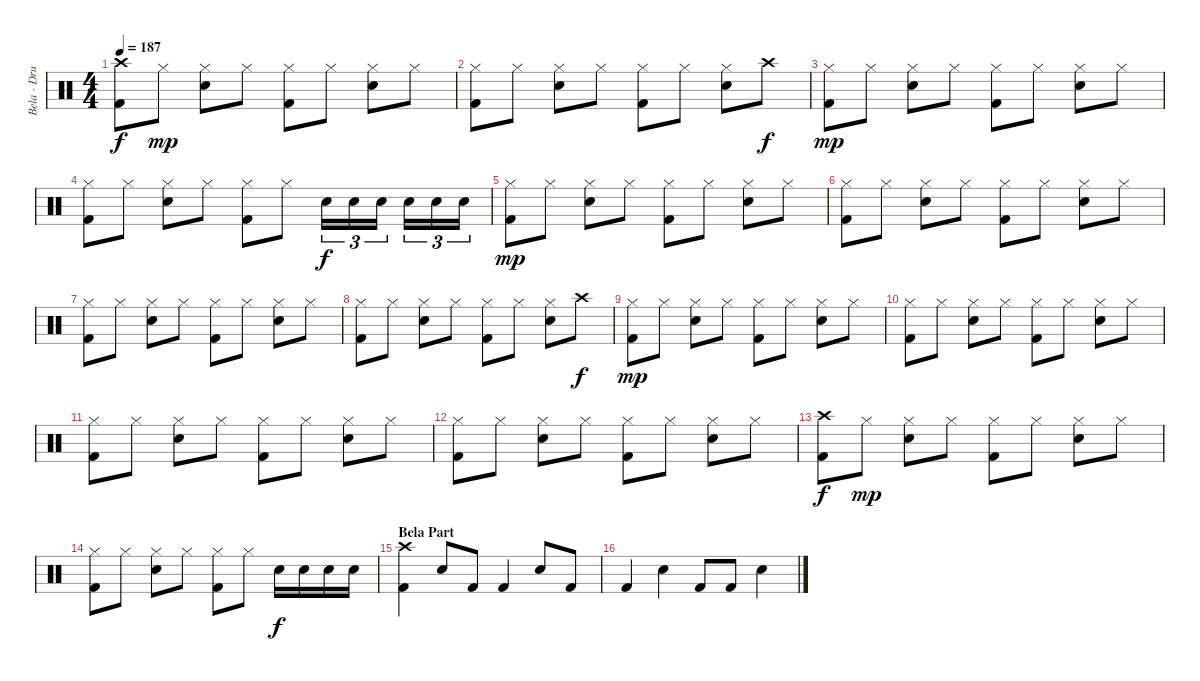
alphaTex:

\track ("Bela - Drums" "Bela - Dru") {instrument percussion}
\staff {score}
\articulation defaults
\ts (4 4)
\tempo 187
\clef neutral
\ks c
("Crash high (hit)" "Kick (hit) 2").8{dy f} "Hi-Hat (closed)".8{dy mp} ("Hi-Hat (closed)" "Snare (hit) 2").8 "Hi-Hat (closed)".8 ("Hi-Hat (closed)" "Kick (hit) 2").8 "Hi-Hat (closed)".8 ("Hi-Hat (closed)" "Snare (hit) 2").8 "Hi-Hat (closed)".8 |
("Hi-Hat (closed)" "Kick (hit) 2").8 "Hi-Hat (closed)".8 ("Hi-Hat (closed)" "Snare (hit) 2").8 "Hi-Hat (closed)".8 ("Hi-Hat (closed)" "Kick (hit) 2").8 "Hi-Hat (closed)".8 ("Hi-Hat (closed)" "Snare (hit) 2").8 "Crash high (hit)".8{dy f} |
("Hi-Hat (closed)" "Kick (hit) 2").8{dy mp} "Hi-Hat (closed)".8 ("Hi-Hat (closed)" "Snare (hit) 2").8 "Hi-Hat (closed)".8 ("Hi-Hat (closed)" "Kick (hit) 2").8 "Hi-Hat (closed)".8 ("Hi-Hat (closed)" "Snare (hit) 2").8 "Hi-Hat (closed)".8 |
("Hi-Hat (closed)" "Kick (hit) 2").8 "Hi-Hat (closed)".8 ("Hi-Hat (closed)" "Snare (hit) 2").8 "Hi-Hat (closed)".8 ("Hi-Hat (closed)" "Kick (hit) 2").8 "Hi-Hat (closed)".8 "Snare (hit) 2".16{tu (3 2) dy f} "Snare (hit) 2".16{tu (3 2)} "Snare (hit) 2".16{tu (3 2)} "Snare (hit) 2".16{tu (3 2)} "Snare (hit) 2".16{tu (3 2)} "Snare (hit) 2".16{tu (3 2)} |
("Hi-Hat (closed)" "Kick (hit) 2").8{dy mp} "Hi-Hat (closed)".8 ("Hi-Hat (closed)" "Snare (hit) 2").8 "Hi-Hat (closed)".8 ("Hi-Hat (closed)" "Kick (hit) 2").8 "Hi-Hat (closed)".8 ("Hi-Hat (closed)" "Snare (hit) 2").8 "Hi-Hat (closed)".8 |
("Hi-Hat (closed)" "Kick (hit) 2").8 "Hi-Hat (closed)".8 ("Hi-Hat (closed)" "Snare (hit) 2").8 "Hi-Hat (closed)".8 ("Hi-Hat (closed)" "Kick (hit) 2").8 "Hi-Hat (closed)".8 ("Hi-Hat (closed)" "Snare (hit) 2").8 "Hi-Hat (closed)".8 |
("Hi-Hat (closed)" "Kick (hit) 2").8 "Hi-Hat (closed)".8 ("Hi-Hat (closed)" "Snare (hit) 2").8 "Hi-Hat (closed)".8 ("Hi-Hat (closed)" "Kick (hit) 2").8 "Hi-Hat (closed)".8 ("Hi-Hat (closed)" "Snare (hit) 2").8 "Hi-Hat (closed)".8 |
("Hi-Hat (closed)" "Kick (hit) 2").8 "Hi-Hat (closed)".8 ("Hi-Hat (closed)" "Snare (hit) 2").8 "Hi-Hat (closed)".8 ("Hi-Hat (closed)" "Kick (hit) 2").8 "Hi-Hat (closed)".8 ("Hi-Hat (closed)" "Snare (hit) 2").8 "Crash high (hit)".8{dy f} |
("Hi-Hat (closed)" "Kick (hit) 2").8{dy mp} "Hi-Hat (closed)".8 ("Hi-Hat (closed)" "Snare (hit) 2").8 "Hi-Hat (closed)".8 ("Hi-Hat (closed)" "Kick (hit) 2").8 "Hi-Hat (closed)".8 ("Hi-Hat (closed)" "Snare (hit) 2").8 "Hi-Hat (closed)".8 |
("Hi-Hat (closed)" "Kick (hit) 2").8 "Hi-Hat (closed)".8 ("Hi-Hat (closed)" "Snare (hit) 2").8 "Hi-Hat (closed)".8 ("Hi-Hat (closed)" "Kick (hit) 2").8 "Hi-Hat (closed)".8 ("Hi-Hat (closed)" "Snare (hit) 2").8 "Hi-Hat (closed)".8 |
("Hi-Hat (closed)" "Kick (hit) 2").8 "Hi-Hat (closed)".8 ("Hi-Hat (closed)" "Snare (hit) 2").8 "Hi-Hat (closed)".8 ("Hi-Hat (closed)" "Kick (hit) 2").8 "Hi-Hat (closed)".8 ("Hi-Hat (closed)" "Snare (hit) 2").8 "Hi-Hat (closed)".8 |
("Hi-Hat (closed)" "Kick (hit) 2").8 "Hi-Hat (closed)".8 ("Hi-Hat (closed)" "Snare (hit) 2").8 "Hi-Hat (closed)".8 ("Hi-Hat (closed)" "Kick (hit) 2").8 "Hi-Hat (closed)".8 ("Hi-Hat (closed)" "Snare (hit) 2").8 "Hi-Hat (closed)".8 |
("Crash high (hit)" "Kick (hit) 2").8{dy f} "Hi-Hat (closed)".8{dy mp} ("Hi-Hat (closed)" "Snare (hit) 2").8 "Hi-Hat (closed)".8 ("Hi-Hat (closed)" "Kick (hit) 2").8 "Hi-Hat (closed)".8 ("Hi-Hat (closed)" "Snare (hit) 2").8 "Hi-Hat (closed)".8 |
("Hi-Hat (closed)" "Kick (hit) 2").8 "Hi-Hat (closed)".8 ("Hi-Hat (closed)" "Snare (hit) 2").8 "Hi-Hat (closed)".8 ("Hi-Hat (closed)" "Kick (hit) 2").8 "Hi-Hat (closed)".8 "Snare (hit) 2".16{dy f} "Snare (hit) 2".16 "Snare (hit) 2".16 "Snare (hit) 2".16 |
\section ("" "Bela Part")
("Crash high (hit)" "Kick (hit) 2").4 "Snare (hit) 2".8 "Kick (hit) 2".8 "Kick (hit) 2".4 "Snare (hit) 2".8 "Kick (hit) 2".8 |
"Kick (hit) 2".4 "Snare (hit) 2".4 "Kick (hit) 2".8 "Kick (hit) 2".8 "Snare (hit) 2".4
